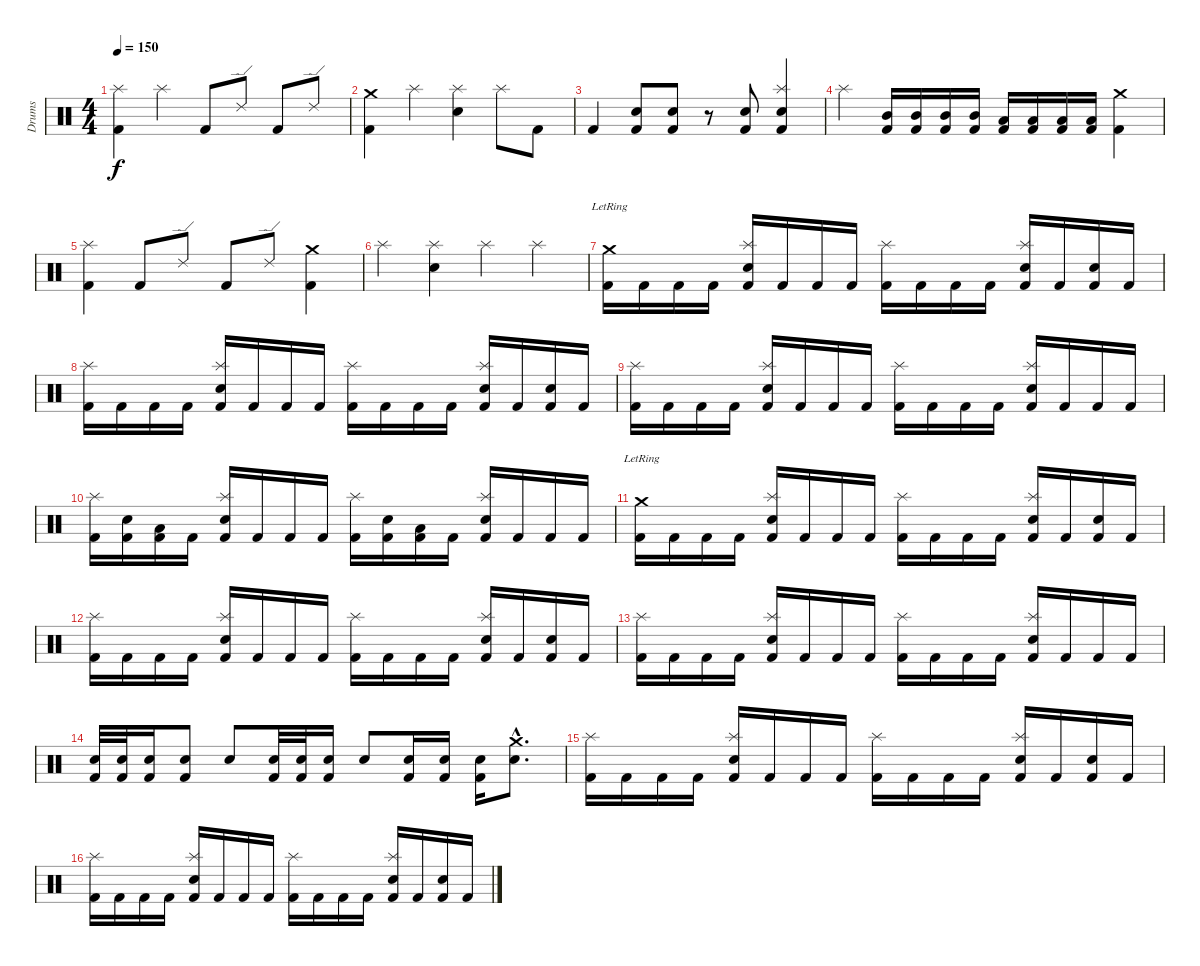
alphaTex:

\track ("Drums" "Drums") {instrument percussion}
\staff {score}
\articulation defaults
\ts (4 4)
\tempo 150
\clef neutral
\ks c
("Kick (hit) 2" "Splash (hit)").4{dy f} "Splash (hit)".4 "Kick (hit) 2".8 "Ride (edge) 2".8 "Kick (hit) 2".8 "Ride (edge) 2".8 |
("Kick (hit) 2" "Crash medium (hit)").4 "Splash (hit)".4 ("Splash (hit)" "Snare (hit) 2").4 "Splash (hit)".8 "Kick (hit) 2".8 |
"Kick (hit) 2".4 ("Kick (hit) 2" "Snare (hit) 2").8 ("Kick (hit) 2" "Snare (hit) 2").8 r.8 ("Kick (hit) 2" "Snare (hit) 2").8 ("Kick (hit) 2" "Snare (hit) 2" "Splash (hit)").4 |
"Splash (hit)".4 ("Kick (hit) 2" "Mid Tom (hit)").16 ("Kick (hit) 2" "Mid Tom (hit)").16 ("Kick (hit) 2" "Mid Tom (hit)").16 ("Kick (hit) 2" "Mid Tom (hit)").16 ("Kick (hit) 2" "Low Tom (hit)").16 ("Kick (hit) 2" "Low Tom (hit)").16 ("Kick (hit) 2" "Low Tom (hit)").16 ("Kick (hit) 2" "Low Tom (hit)").16 ("Kick (hit) 2" "Crash medium (hit)").4 |
("Kick (hit) 2" "Splash (hit)").4 "Kick (hit) 2".8 "Ride (edge) 2".8 "Kick (hit) 2".8 "Ride (edge) 2".8 ("Kick (hit) 2" "Crash medium (hit)").4 |
"Splash (hit)".4 ("Snare (hit) 2" "Splash (hit)").4 "Splash (hit)".4 "Splash (hit)".4 |
("Kick (hit) 2" "Crash medium (hit)"{lr}).16 "Kick (hit) 2".16 "Kick (hit) 2".16 "Kick (hit) 2".16 ("Kick (hit) 2" "Snare (hit) 2" "Splash (hit)").16 "Kick (hit) 2".16 "Kick (hit) 2".16 "Kick (hit) 2".16 ("Kick (hit) 2" "Splash (hit)").16 "Kick (hit) 2".16 "Kick (hit) 2".16 "Kick (hit) 2".16 ("Kick (hit) 2" "Snare (hit) 2" "Splash (hit)").16 "Kick (hit) 2".16 ("Kick (hit) 2" "Electric Snare (hit)").16 "Kick (hit) 2".16 |
("Kick (hit) 2" "Splash (hit)").16 "Kick (hit) 2".16 "Kick (hit) 2".16 "Kick (hit) 2".16 ("Kick (hit) 2" "Snare (hit) 2" "Splash (hit)").16 "Kick (hit) 2".16 "Kick (hit) 2".16 "Kick (hit) 2".16 ("Kick (hit) 2" "Splash (hit)").16 "Kick (hit) 2".16 "Kick (hit) 2".16 "Kick (hit) 2".16 ("Kick (hit) 2" "Snare (hit) 2" "Splash (hit)").16 "Kick (hit) 2".16 ("Kick (hit) 2" "Electric Snare (hit)").16 "Kick (hit) 2".16 |
("Kick (hit) 2" "Splash (hit)").16 "Kick (hit) 2".16 "Kick (hit) 2".16 "Kick (hit) 2".16 ("Kick (hit) 2" "Snare (hit) 2" "Splash (hit)").16 "Kick (hit) 2".16 "Kick (hit) 2".16 "Kick (hit) 2".16 ("Kick (hit) 2" "Splash (hit)").16 "Kick (hit) 2".16 "Kick (hit) 2".16 "Kick (hit) 2".16 ("Kick (hit) 2" "Snare (hit) 2" "Splash (hit)").16 "Kick (hit) 2".16 "Kick (hit) 2".16 "Kick (hit) 2".16 |
("Kick (hit) 2" "Splash (hit)").16 ("Kick (hit) 2" "Electric Snare (hit)").16 ("Kick (hit) 2" "Low Floor Tom (hit)").16 "Kick (hit) 2".16 ("Kick (hit) 2" "Snare (hit) 2" "Splash (hit)").16 "Kick (hit) 2".16 "Kick (hit) 2".16 "Kick (hit) 2".16 ("Kick (hit) 2" "Splash (hit)").16 ("Kick (hit) 2" "Electric Snare (hit)").16 ("Kick (hit) 2" "Low Floor Tom (hit)").16 "Kick (hit) 2".16 ("Kick (hit) 2" "Snare (hit) 2" "Splash (hit)").16 "Kick (hit) 2".16 "Kick (hit) 2".16 "Kick (hit) 2".16 |
("Kick (hit) 2" "Crash medium (hit)"{lr}).16 "Kick (hit) 2".16 "Kick (hit) 2".16 "Kick (hit) 2".16 ("Kick (hit) 2" "Snare (hit) 2" "Splash (hit)").16 "Kick (hit) 2".16 "Kick (hit) 2".16 "Kick (hit) 2".16 ("Kick (hit) 2" "Splash (hit)").16 "Kick (hit) 2".16 "Kick (hit) 2".16 "Kick (hit) 2".16 ("Kick (hit) 2" "Snare (hit) 2" "Splash (hit)").16 "Kick (hit) 2".16 ("Kick (hit) 2" "Electric Snare (hit)").16 "Kick (hit) 2".16 |
("Kick (hit) 2" "Splash (hit)").16 "Kick (hit) 2".16 "Kick (hit) 2".16 "Kick (hit) 2".16 ("Kick (hit) 2" "Snare (hit) 2" "Splash (hit)").16 "Kick (hit) 2".16 "Kick (hit) 2".16 "Kick (hit) 2".16 ("Kick (hit) 2" "Splash (hit)").16 "Kick (hit) 2".16 "Kick (hit) 2".16 "Kick (hit) 2".16 ("Kick (hit) 2" "Snare (hit) 2" "Splash (hit)").16 "Kick (hit) 2".16 ("Kick (hit) 2" "Electric Snare (hit)").16 "Kick (hit) 2".16 |
("Kick (hit) 2" "Splash (hit)").16 "Kick (hit) 2".16 "Kick (hit) 2".16 "Kick (hit) 2".16 ("Kick (hit) 2" "Snare (hit) 2" "Splash (hit)").16 "Kick (hit) 2".16 "Kick (hit) 2".16 "Kick (hit) 2".16 ("Kick (hit) 2" "Splash (hit)").16 "Kick (hit) 2".16 "Kick (hit) 2".16 "Kick (hit) 2".16 ("Kick (hit) 2" "Snare (hit) 2" "Splash (hit)").16 "Kick (hit) 2".16 "Kick (hit) 2".16 "Kick (hit) 2".16 |
("Kick (hit) 2" "Electric Snare (hit)").32 ("Kick (hit) 2" "Electric Snare (hit)").32 ("Kick (hit) 2" "Electric Snare (hit)").16 ("Kick (hit) 2" "Electric Snare (hit)").8 "Snare (hit) 2".8 ("Kick (hit) 2" "Electric Snare (hit)").32 ("Kick (hit) 2" "Electric Snare (hit)").32 ("Kick (hit) 2" "Electric Snare (hit)").16 "Snare (hit) 2".8 ("Kick (hit) 2" "Electric Snare (hit)").16 ("Kick (hit) 2" "Snare (hit) 2").16 ("Kick (hit) 2" "Electric Snare (hit)").16 ("Snare (hit) 2"{hac} "Crash medium (hit)"{hac}).8{d} |
("Kick (hit) 2" "Splash (hit)").16 "Kick (hit) 2".16 "Kick (hit) 2".16 "Kick (hit) 2".16 ("Kick (hit) 2" "Snare (hit) 2" "Splash (hit)").16 "Kick (hit) 2".16 "Kick (hit) 2".16 "Kick (hit) 2".16 ("Kick (hit) 2" "Splash (hit)").16 "Kick (hit) 2".16 "Kick (hit) 2".16 "Kick (hit) 2".16 ("Kick (hit) 2" "Snare (hit) 2" "Splash (hit)").16 "Kick (hit) 2".16 ("Kick (hit) 2" "Electric Snare (hit)").16 "Kick (hit) 2".16 |
("Kick (hit) 2" "Splash (hit)").16 "Kick (hit) 2".16 "Kick (hit) 2".16 "Kick (hit) 2".16 ("Kick (hit) 2" "Snare (hit) 2" "Splash (hit)").16 "Kick (hit) 2".16 "Kick (hit) 2".16 "Kick (hit) 2".16 ("Kick (hit) 2" "Splash (hit)").16 "Kick (hit) 2".16 "Kick (hit) 2".16 "Kick (hit) 2".16 ("Kick (hit) 2" "Snare (hit) 2" "Splash (hit)").16 "Kick (hit) 2".16 ("Kick (hit) 2" "Electric Snare (hit)").16 "Kick (hit) 2".16
